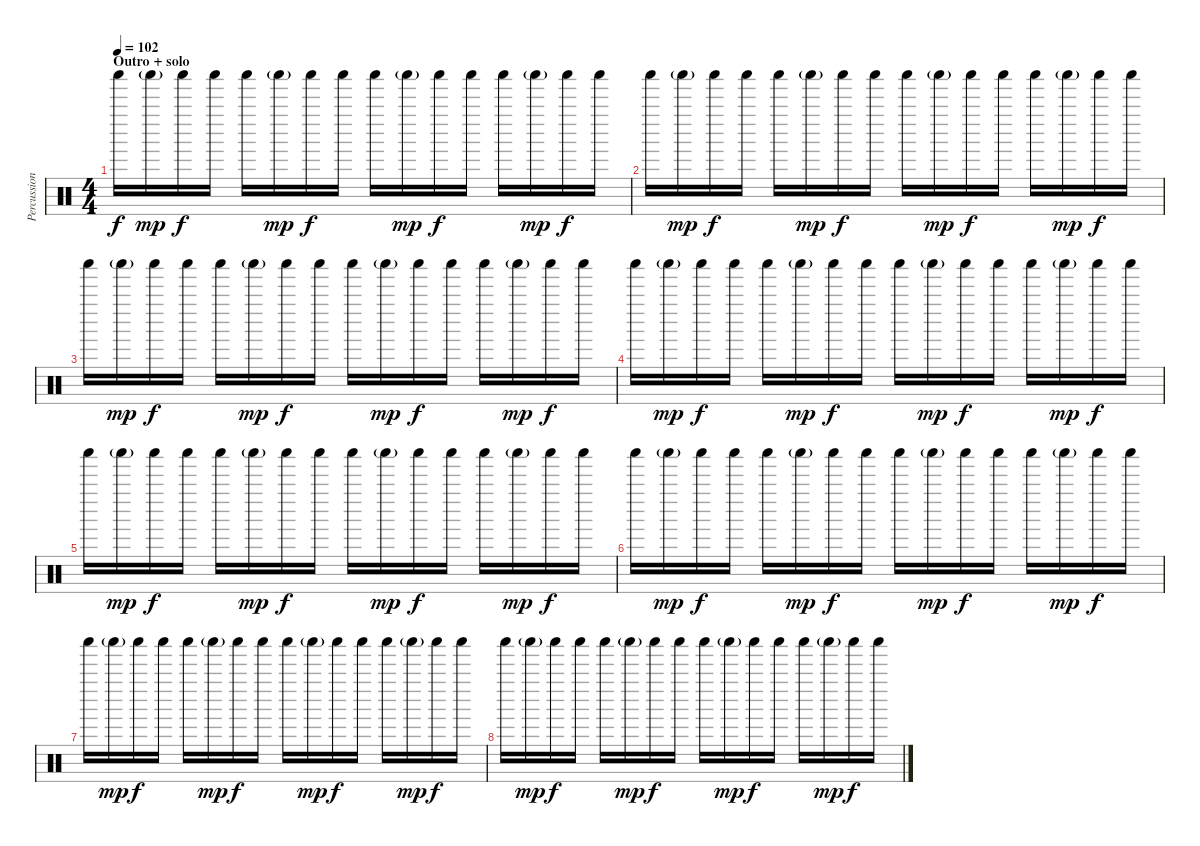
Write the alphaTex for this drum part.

\track ("Percussion" "Percussion") {instrument percussion}
\staff {score}
\articulation defaults
\ts (4 4)
\section ("" "Outro + solo")
\tempo 102
\clef neutral
\ks c "Shaker (hit)".16{dy f} "Shaker (hit)"{g}.16{dy mp} "Shaker (hit)".16{dy f} "Shaker (hit)".16 "Shaker (hit)".16 "Shaker (hit)"{g}.16{dy mp} "Shaker (hit)".16{dy f} "Shaker (hit)".16 "Shaker (hit)".16 "Shaker (hit)"{g}.16{dy mp} "Shaker (hit)".16{dy f} "Shaker (hit)".16 "Shaker (hit)".16 "Shaker (hit)"{g}.16{dy mp} "Shaker (hit)".16{dy f} "Shaker (hit)".16
|
"Shaker (hit)".16 "Shaker (hit)"{g}.16{dy mp} "Shaker (hit)".16{dy f} "Shaker (hit)".16 "Shaker (hit)".16 "Shaker (hit)"{g}.16{dy mp} "Shaker (hit)".16{dy f} "Shaker (hit)".16 "Shaker (hit)".16 "Shaker (hit)"{g}.16{dy mp} "Shaker (hit)".16{dy f} "Shaker (hit)".16 "Shaker (hit)".16 "Shaker (hit)"{g}.16{dy mp} "Shaker (hit)".16{dy f} "Shaker (hit)".16 |
"Shaker (hit)".16 "Shaker (hit)"{g}.16{dy mp} "Shaker (hit)".16{dy f} "Shaker (hit)".16 "Shaker (hit)".16 "Shaker (hit)"{g}.16{dy mp} "Shaker (hit)".16{dy f} "Shaker (hit)".16 "Shaker (hit)".16 "Shaker (hit)"{g}.16{dy mp} "Shaker (hit)".16{dy f} "Shaker (hit)".16 "Shaker (hit)".16 "Shaker (hit)"{g}.16{dy mp} "Shaker (hit)".16{dy f} "Shaker (hit)".16 |
"Shaker (hit)".16 "Shaker (hit)"{g}.16{dy mp} "Shaker (hit)".16{dy f} "Shaker (hit)".16 "Shaker (hit)".16 "Shaker (hit)"{g}.16{dy mp} "Shaker (hit)".16{dy f} "Shaker (hit)".16 "Shaker (hit)".16 "Shaker (hit)"{g}.16{dy mp} "Shaker (hit)".16{dy f} "Shaker (hit)".16 "Shaker (hit)".16 "Shaker (hit)"{g}.16{dy mp} "Shaker (hit)".16{dy f} "Shaker (hit)".16 |
"Shaker (hit)".16 "Shaker (hit)"{g}.16{dy mp} "Shaker (hit)".16{dy f} "Shaker (hit)".16 "Shaker (hit)".16 "Shaker (hit)"{g}.16{dy mp} "Shaker (hit)".16{dy f} "Shaker (hit)".16 "Shaker (hit)".16 "Shaker (hit)"{g}.16{dy mp} "Shaker (hit)".16{dy f} "Shaker (hit)".16 "Shaker (hit)".16 "Shaker (hit)"{g}.16{dy mp} "Shaker (hit)".16{dy f} "Shaker (hit)".16 |
"Shaker (hit)".16 "Shaker (hit)"{g}.16{dy mp} "Shaker (hit)".16{dy f} "Shaker (hit)".16 "Shaker (hit)".16 "Shaker (hit)"{g}.16{dy mp} "Shaker (hit)".16{dy f} "Shaker (hit)".16 "Shaker (hit)".16 "Shaker (hit)"{g}.16{dy mp} "Shaker (hit)".16{dy f} "Shaker (hit)".16 "Shaker (hit)".16 "Shaker (hit)"{g}.16{dy mp} "Shaker (hit)".16{dy f} "Shaker (hit)".16 |
"Shaker (hit)".16 "Shaker (hit)"{g}.16{dy mp} "Shaker (hit)".16{dy f} "Shaker (hit)".16 "Shaker (hit)".16 "Shaker (hit)"{g}.16{dy mp} "Shaker (hit)".16{dy f} "Shaker (hit)".16 "Shaker (hit)".16 "Shaker (hit)"{g}.16{dy mp} "Shaker (hit)".16{dy f} "Shaker (hit)".16 "Shaker (hit)".16 "Shaker (hit)"{g}.16{dy mp} "Shaker (hit)".16{dy f} "Shaker (hit)".16 |
"Shaker (hit)".16 "Shaker (hit)"{g}.16{dy mp} "Shaker (hit)".16{dy f} "Shaker (hit)".16 "Shaker (hit)".16 "Shaker (hit)"{g}.16{dy mp} "Shaker (hit)".16{dy f} "Shaker (hit)".16 "Shaker (hit)".16 "Shaker (hit)"{g}.16{dy mp} "Shaker (hit)".16{dy f} "Shaker (hit)".16 "Shaker (hit)".16 "Shaker (hit)"{g}.16{dy mp} "Shaker (hit)".16{dy f} "Shaker (hit)".16
